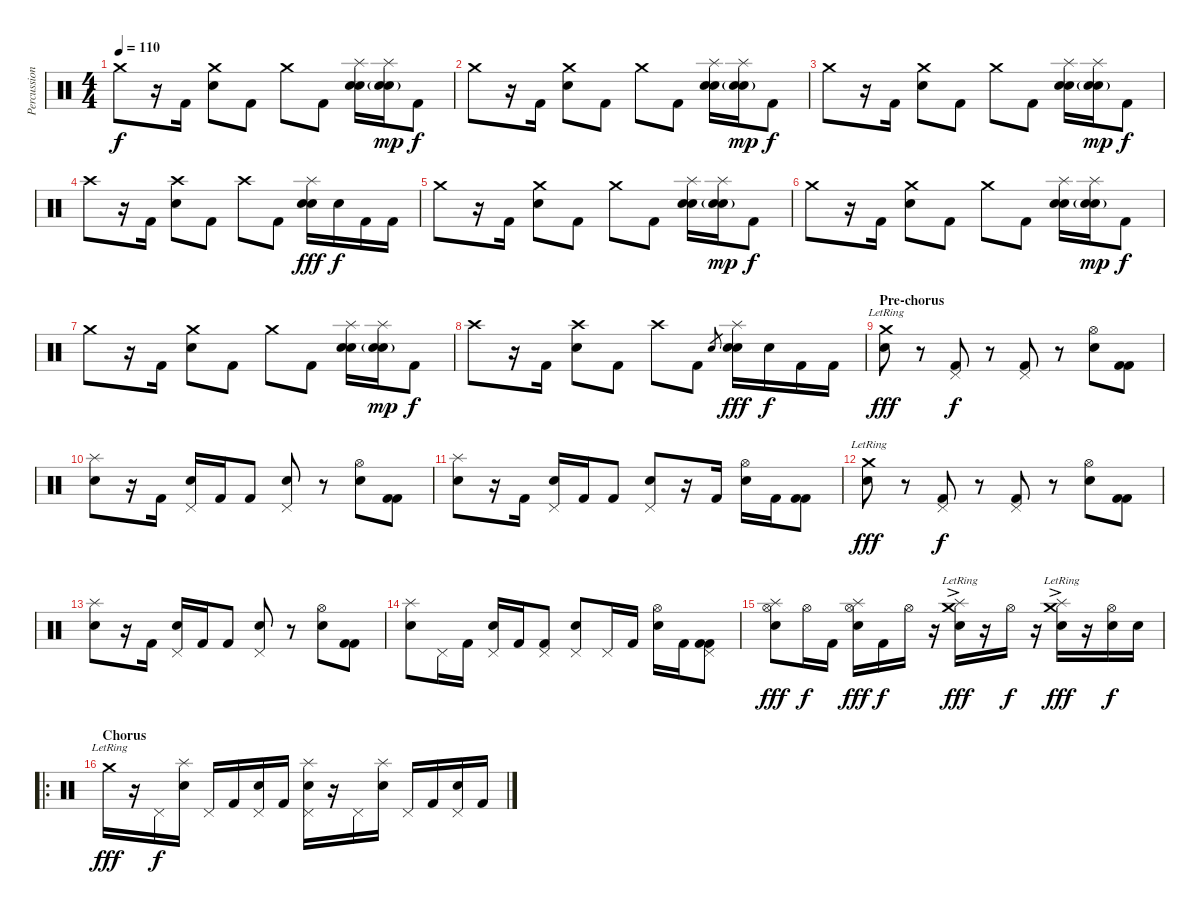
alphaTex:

\track ("Percussion" "Percussion") {instrument percussion}
\staff {score}
\articulation defaults
\ts (4 4)
\tempo 110
\clef neutral
\ks c "Crash medium (hit)".8{dy f}
r.16 "Kick (hit) 2".16 ("Crash medium (hit)" "Snare (hit) 2").8 "Kick (hit) 2".8 "Crash medium (hit)".8 "Kick (hit) 2".8 ("Hand Clap (hit)" "Splash (hit)" "Snare (hit) 2").16 ("Hand Clap (hit)"{g} "Splash (hit)" "Snare (hit) 2").16{dy mp} "Kick (hit) 2".8{dy f} |
"Crash medium (hit)".8 r.16 "Kick (hit) 2".16 ("Crash medium (hit)" "Snare (hit) 2").8 "Kick (hit) 2".8 "Crash medium (hit)".8 "Kick (hit) 2".8 ("Hand Clap (hit)" "Splash (hit)" "Snare (hit) 2").16 ("Hand Clap (hit)"{g} "Splash (hit)" "Snare (hit) 2").16{dy mp} "Kick (hit) 2".8{dy f} |
"Crash medium (hit)".8 r.16 "Kick (hit) 2".16 ("Crash medium (hit)" "Snare (hit) 2").8 "Kick (hit) 2".8 "Crash medium (hit)".8 "Kick (hit) 2".8 ("Hand Clap (hit)" "Splash (hit)" "Snare (hit) 2").16 ("Hand Clap (hit)"{g} "Splash (hit)" "Snare (hit) 2").16{dy mp} "Kick (hit) 2".8{dy f} |
"Crash high (hit)".8 r.16 "Kick (hit) 2".16 ("Crash high (hit)" "Snare (hit) 2").8 "Kick (hit) 2".8 "Crash high (hit)".8 "Kick (hit) 2".8 ("Hand Clap (hit)" "Splash (hit)" "Snare (hit) 2").16{dy fff} "Snare (hit) 2".16{dy f} "Kick (hit) 2".16 "Kick (hit) 2".16 |
"Crash medium (hit)".8 r.16 "Kick (hit) 2".16 ("Crash medium (hit)" "Snare (hit) 2").8 "Kick (hit) 2".8 "Crash medium (hit)".8 "Kick (hit) 2".8 ("Hand Clap (hit)" "Splash (hit)" "Snare (hit) 2").16 ("Hand Clap (hit)"{g} "Splash (hit)" "Snare (hit) 2").16{dy mp} "Kick (hit) 2".8{dy f} |
"Crash medium (hit)".8 r.16 "Kick (hit) 2".16 ("Crash medium (hit)" "Snare (hit) 2").8 "Kick (hit) 2".8 "Crash medium (hit)".8 "Kick (hit) 2".8 ("Hand Clap (hit)" "Splash (hit)" "Snare (hit) 2").16 ("Hand Clap (hit)"{g} "Splash (hit)" "Snare (hit) 2").16{dy mp} "Kick (hit) 2".8{dy f} |
"Crash medium (hit)".8 r.16 "Kick (hit) 2".16 ("Crash medium (hit)" "Snare (hit) 2").8 "Kick (hit) 2".8 "Crash medium (hit)".8 "Kick (hit) 2".8 ("Hand Clap (hit)" "Splash (hit)" "Snare (hit) 2").16 ("Hand Clap (hit)"{g} "Splash (hit)" "Snare (hit) 2").16{dy mp} "Kick (hit) 2".8{dy f} |
"Crash high (hit)".8 r.16 "Kick (hit) 2".16 ("Crash high (hit)" "Snare (hit) 2").8 "Kick (hit) 2".8 "Crash high (hit)".8 "Kick (hit) 2".8 "Snare (hit) 2".8{gr} ("Hand Clap (hit)" "Splash (hit)" "Snare (hit) 2").16{dy fff} "Snare (hit) 2".16{dy f} "Kick (hit) 2".16 "Kick (hit) 2".16 |
\section ("" "Pre-chorus")
("Crash medium (hit)"{lr} "Snare (hit) 2").8{dy fff} r.8 ("Pedal Hi-Hat (hit)" "Kick (hit) 2").8{dy f} r.8 ("Pedal Hi-Hat (hit)" "Kick (hit) 2").8 r.8 ("Hi-Hat (open)" "Snare (hit) 2").8 ("Kick (hit) 2" "Kick (hit) 2").8 |
("Splash (hit)" "Snare (hit) 2").8 r.16 "Kick (hit) 2".16 ("Pedal Hi-Hat (hit)" "Snare (hit) 2").16 "Kick (hit) 2".16 "Kick (hit) 2".8 ("Pedal Hi-Hat (hit)" "Snare (hit) 2").8 r.8 ("Hi-Hat (open)" "Snare (hit) 2").8 ("Kick (hit) 2" "Kick (hit) 2").8 |
("Splash (hit)" "Snare (hit) 2").8 r.16 "Kick (hit) 2".16 ("Pedal Hi-Hat (hit)" "Snare (hit) 2").16 "Kick (hit) 2".16 "Kick (hit) 2".8 ("Pedal Hi-Hat (hit)" "Snare (hit) 2").8 r.16 "Kick (hit) 2".16 ("Hi-Hat (open)" "Snare (hit) 2").16 "Kick (hit) 2".16 ("Kick (hit) 2" "Kick (hit) 2").8 |
("Crash medium (hit)"{lr} "Snare (hit) 2").8{dy fff} r.8 ("Pedal Hi-Hat (hit)" "Kick (hit) 2").8{dy f} r.8 ("Pedal Hi-Hat (hit)" "Kick (hit) 2").8 r.8 ("Hi-Hat (open)" "Snare (hit) 2").8 ("Kick (hit) 2" "Kick (hit) 2").8 |
("Splash (hit)" "Snare (hit) 2").8 r.16 "Kick (hit) 2".16 ("Pedal Hi-Hat (hit)" "Snare (hit) 2").16 "Kick (hit) 2".16 "Kick (hit) 2".8 ("Pedal Hi-Hat (hit)" "Snare (hit) 2").8 r.8 ("Hi-Hat (open)" "Snare (hit) 2").8 ("Kick (hit) 2" "Kick (hit) 2").8 |
("Splash (hit)" "Snare (hit) 2").8 "Pedal Hi-Hat (hit)".16 "Kick (hit) 2".16 ("Pedal Hi-Hat (hit)" "Snare (hit) 2").16 "Kick (hit) 2".16 ("Pedal Hi-Hat (hit)" "Kick (hit) 2").8 ("Pedal Hi-Hat (hit)" "Snare (hit) 2").8 "Pedal Hi-Hat (hit)".16 "Kick (hit) 2".16 ("Hi-Hat (open)" "Snare (hit) 2").16 "Kick (hit) 2".16 ("Pedal Hi-Hat (hit)" "Kick (hit) 2" "Kick (hit) 2").8 |
("Hi-Hat (open)" "Splash (hit)" "Snare (hit) 2").8{dy fff} "Hi-Hat (open)".16{dy f} "Kick (hit) 2".16 ("Hi-Hat (open)" "Splash (hit)" "Snare (hit) 2").16{dy fff} "Kick (hit) 2".16{dy f} "Hi-Hat (open)".16 r.16 ("Crash medium (hit)"{ac lr} "Splash (hit)" "Electric Snare (hit)").16{dy fff} r.16 "Hi-Hat (open)".16{dy f} r.16 ("Crash medium (hit)"{ac lr} "Splash (hit)" "Snare (hit) 2").16{dy fff} r.16 ("Hi-Hat (open)" "Snare (hit) 2").16{dy f} "Snare (hit) 2".16 |
\ro
\section ("" "Chorus")
"Crash medium (hit)"{lr}.16{dy fff} r.16 "Pedal Hi-Hat (hit)".16{dy f} ("Splash (hit)" "Electric Snare (hit)").16 "Pedal Hi-Hat (hit)".16 "Kick (hit) 2".16 ("Electric Snare (hit)" "Pedal Hi-Hat (hit)").16 "Kick (hit) 2".16 ("Splash (hit)" "Electric Snare (hit)" "Pedal Hi-Hat (hit)").16 r.16 "Pedal Hi-Hat (hit)".16 ("Splash (hit)" "Electric Snare (hit)").16 "Pedal Hi-Hat (hit)".16 "Kick (hit) 2".16 ("Electric Snare (hit)" "Pedal Hi-Hat (hit)").16 "Kick (hit) 2".16
